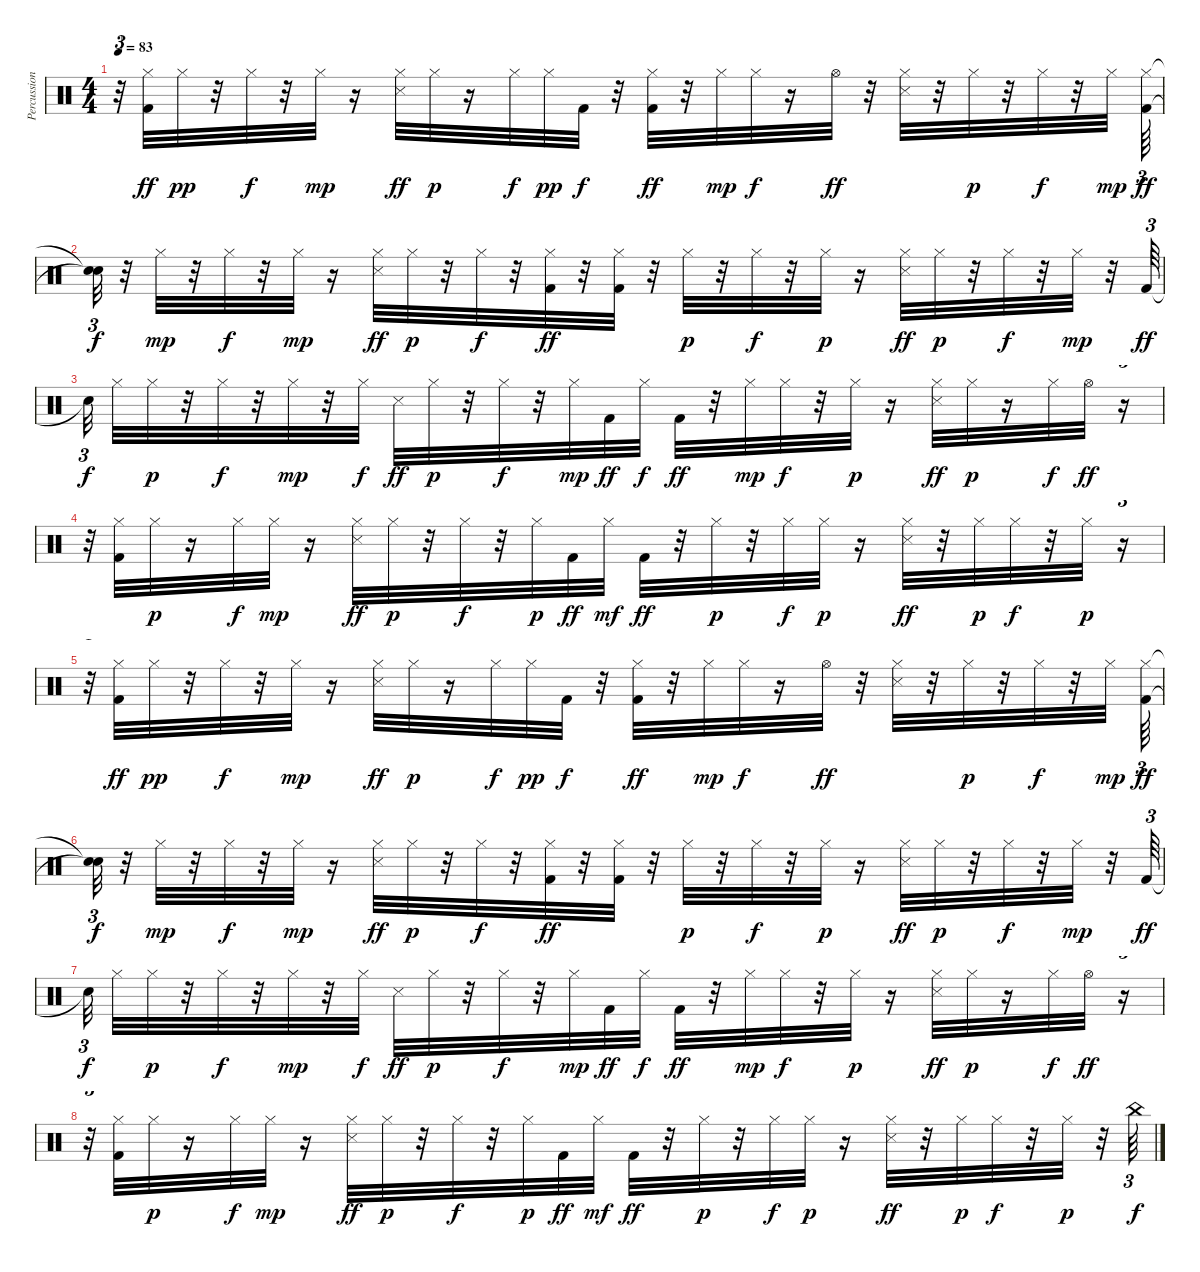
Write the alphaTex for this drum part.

\track ("Percussion" "Percussion") {instrument percussion}
\staff {score}
\articulation defaults
\ts (4 4)
\tempo 83
\clef neutral
\ks c
r.32{tu (3 2) dy p} ("Hi-Hat (closed)" "Kick (hit) 2").32{dy ff} "Hi-Hat (closed)".32{dy pp} r.32 "Hi-Hat (closed)".32{dy f} r.32 "Hi-Hat (closed)".32{dy mp} r.16 ("Snare (side stick) 3" "Hi-Hat (closed)").32{dy ff} "Hi-Hat (closed)".32{dy p} r.16 "Hi-Hat (closed)".32{dy f} "Hi-Hat (closed)".32{dy pp} "Kick (hit) 2".32{dy f} r.32 ("Kick (hit) 2" "Hi-Hat (closed)").32{dy ff} r.32 "Hi-Hat (closed)".32{dy mp} "Hi-Hat (closed)".32{dy f} r.16 "Hi-Hat (open)".32{dy ff} r.32 ("Snare (side stick) 3" "Hi-Hat (closed)").32 r.32 "Hi-Hat (closed)".32{dy p} r.32 "Hi-Hat (closed)".32{dy f} r.32 "Hi-Hat (closed)".32{dy mp} ("Hi-Hat (closed)" "Kick (hit) 2").64{tu (3 2) dy ff} |
("Snare (hit)"{t} "Snare (hit)"{t}).32{tu (3 2) dy f} r.32 "Hi-Hat (closed)".32{dy mp} r.32 "Hi-Hat (closed)".32{dy f} r.32 "Hi-Hat (closed)".32{dy mp} r.16 ("Hi-Hat (closed)" "Snare (side stick) 3").32{dy ff} "Hi-Hat (closed)".32{dy p} r.32 "Hi-Hat (closed)".32{dy f} r.32 ("Hi-Hat (closed)" "Kick (hit) 2").32{dy ff} r.32 ("Kick (hit) 2" "Hi-Hat (closed)").32 r.32 "Hi-Hat (closed)".32{dy p} r.32 "Hi-Hat (closed)".32{dy f} r.32 "Hi-Hat (closed)".32{dy p} r.16 ("Hi-Hat (closed)" "Snare (side stick) 3").32{dy ff} "Hi-Hat (closed)".32{dy p} r.32 "Hi-Hat (closed)".32{dy f} r.32 "Hi-Hat (closed)".32{dy mp} r.32 "Kick (hit) 2".64{tu (3 2) dy ff} |
"Snare (hit)"{t}.32{tu (3 2) dy f} "Hi-Hat (closed)".32 "Hi-Hat (closed)".32{dy p} r.32 "Hi-Hat (closed)".32{dy f} r.32 "Hi-Hat (closed)".32{dy mp} r.32 "Hi-Hat (closed)".32{dy f} "Snare (side stick) 3".32{dy ff} "Hi-Hat (closed)".32{dy p} r.32 "Hi-Hat (closed)".32{dy f} r.32 "Hi-Hat (closed)".32{dy mp} "Kick (hit) 2".32{dy ff} "Hi-Hat (closed)".32{dy f} "Kick (hit) 2".32{dy ff} r.32 "Hi-Hat (closed)".32{dy mp} "Hi-Hat (closed)".32{dy f} r.32 "Hi-Hat (closed)".32{dy p} r.16 ("Hi-Hat (closed)" "Snare (side stick) 3").32{dy ff} "Hi-Hat (closed)".32{dy p} r.16 "Hi-Hat (closed)".32{dy f} "Hi-Hat (open)".32{dy ff} r.16{tu (3 2)} |
r.32{tu (3 2)} ("Kick (hit) 2" "Hi-Hat (closed)").32 "Hi-Hat (closed)".32{dy p} r.16 "Hi-Hat (closed)".32{dy f} "Hi-Hat (closed)".32{dy mp} r.16 ("Hi-Hat (closed)" "Snare (side stick) 3").32{dy ff} "Hi-Hat (closed)".32{dy p} r.32 "Hi-Hat (closed)".32{dy f} r.32 "Hi-Hat (closed)".32{dy p} "Kick (hit) 2".32{dy ff} "Hi-Hat (closed)".32{dy mf} "Kick (hit) 2".32{dy ff} r.32 "Hi-Hat (closed)".32{dy p} r.32 "Hi-Hat (closed)".32{dy f} "Hi-Hat (closed)".32{dy p} r.16 ("Hi-Hat (closed)" "Snare (side stick) 3").32{dy ff} r.32 "Hi-Hat (closed)".32{dy p} "Hi-Hat (closed)".32{dy f} r.32 "Hi-Hat (closed)".32{dy p} r.16{tu (3 2)} |
r.32{tu (3 2)} ("Hi-Hat (closed)" "Kick (hit) 2").32{dy ff} "Hi-Hat (closed)".32{dy pp} r.32 "Hi-Hat (closed)".32{dy f} r.32 "Hi-Hat (closed)".32{dy mp} r.16 ("Snare (side stick) 3" "Hi-Hat (closed)").32{dy ff} "Hi-Hat (closed)".32{dy p} r.16 "Hi-Hat (closed)".32{dy f} "Hi-Hat (closed)".32{dy pp} "Kick (hit) 2".32{dy f} r.32 ("Kick (hit) 2" "Hi-Hat (closed)").32{dy ff} r.32 "Hi-Hat (closed)".32{dy mp} "Hi-Hat (closed)".32{dy f} r.16 "Hi-Hat (open)".32{dy ff} r.32 ("Snare (side stick) 3" "Hi-Hat (closed)").32 r.32 "Hi-Hat (closed)".32{dy p} r.32 "Hi-Hat (closed)".32{dy f} r.32 "Hi-Hat (closed)".32{dy mp} ("Hi-Hat (closed)" "Kick (hit) 2").64{tu (3 2) dy ff} |
("Snare (hit)"{t} "Snare (hit)"{t}).32{tu (3 2) dy f} r.32 "Hi-Hat (closed)".32{dy mp} r.32 "Hi-Hat (closed)".32{dy f} r.32 "Hi-Hat (closed)".32{dy mp} r.16 ("Hi-Hat (closed)" "Snare (side stick) 3").32{dy ff} "Hi-Hat (closed)".32{dy p} r.32 "Hi-Hat (closed)".32{dy f} r.32 ("Hi-Hat (closed)" "Kick (hit) 2").32{dy ff} r.32 ("Kick (hit) 2" "Hi-Hat (closed)").32 r.32 "Hi-Hat (closed)".32{dy p} r.32 "Hi-Hat (closed)".32{dy f} r.32 "Hi-Hat (closed)".32{dy p} r.16 ("Hi-Hat (closed)" "Snare (side stick) 3").32{dy ff} "Hi-Hat (closed)".32{dy p} r.32 "Hi-Hat (closed)".32{dy f} r.32 "Hi-Hat (closed)".32{dy mp} r.32 "Kick (hit) 2".64{tu (3 2) dy ff} |
"Snare (hit)"{t}.32{tu (3 2) dy f} "Hi-Hat (closed)".32 "Hi-Hat (closed)".32{dy p} r.32 "Hi-Hat (closed)".32{dy f} r.32 "Hi-Hat (closed)".32{dy mp} r.32 "Hi-Hat (closed)".32{dy f} "Snare (side stick) 3".32{dy ff} "Hi-Hat (closed)".32{dy p} r.32 "Hi-Hat (closed)".32{dy f} r.32 "Hi-Hat (closed)".32{dy mp} "Kick (hit) 2".32{dy ff} "Hi-Hat (closed)".32{dy f} "Kick (hit) 2".32{dy ff} r.32 "Hi-Hat (closed)".32{dy mp} "Hi-Hat (closed)".32{dy f} r.32 "Hi-Hat (closed)".32{dy p} r.16 ("Hi-Hat (closed)" "Snare (side stick) 3").32{dy ff} "Hi-Hat (closed)".32{dy p} r.16 "Hi-Hat (closed)".32{dy f} "Hi-Hat (open)".32{dy ff} r.16{tu (3 2)} |
r.32{tu (3 2)} ("Kick (hit) 2" "Hi-Hat (closed)").32 "Hi-Hat (closed)".32{dy p} r.16 "Hi-Hat (closed)".32{dy f} "Hi-Hat (closed)".32{dy mp} r.16 ("Hi-Hat (closed)" "Snare (side stick) 3").32{dy ff} "Hi-Hat (closed)".32{dy p} r.32 "Hi-Hat (closed)".32{dy f} r.32 "Hi-Hat (closed)".32{dy p} "Kick (hit) 2".32{dy ff} "Hi-Hat (closed)".32{dy mf} "Kick (hit) 2".32{dy ff} r.32 "Hi-Hat (closed)".32{dy p} r.32 "Hi-Hat (closed)".32{dy f} "Hi-Hat (closed)".32{dy p} r.16 ("Hi-Hat (closed)" "Snare (side stick) 3").32{dy ff} r.32 "Hi-Hat (closed)".32{dy p} "Hi-Hat (closed)".32{dy f} r.32 "Hi-Hat (closed)".32{dy p} r.32 "China (hit)".64{tu (3 2) dy f}
